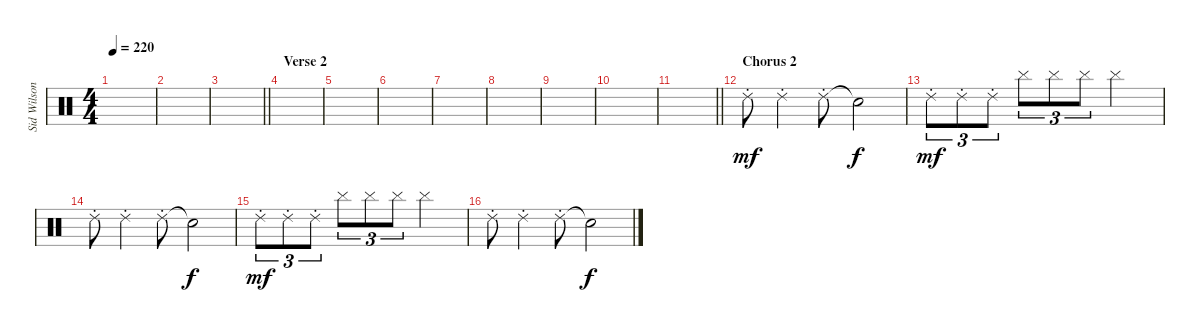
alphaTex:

\track ("Sid Wilson" "Sid Wilson") {instrument percussion}
\staff {score}
\articulation defaults
\ts (4 4)
\tempo 220
\clef neutral
\ks c
|
|
\barLineRight lightlight
|
\section ("" "Verse 2")
|
|
|
|
|
|
|
\barLineRight lightlight
|
\section ("" "Chorus 2")
"Ride (choke) 2".8{dy mf} "Ride (choke) 2".4 "Ride (choke) 2".8 "Snare (hit)"{t}.2{dy f} |
"Ride (choke) 2".8{tu (3 2) dy mf} "Ride (choke) 2".8{tu (3 2)} "Ride (choke) 2".8{tu (3 2)} "Cymbal (hit)".8{tu (3 2)} "Cymbal (hit)".8{tu (3 2)} "Cymbal (hit)".8{tu (3 2)} "Cymbal (hit)".2 |
"Ride (choke) 2".8 "Ride (choke) 2".4 "Ride (choke) 2".8 "Snare (hit)"{t}.2{dy f} |
"Ride (choke) 2".8{tu (3 2) dy mf} "Ride (choke) 2".8{tu (3 2)} "Ride (choke) 2".8{tu (3 2)} "Cymbal (hit)".8{tu (3 2)} "Cymbal (hit)".8{tu (3 2)} "Cymbal (hit)".8{tu (3 2)} "Cymbal (hit)".2 |
"Ride (choke) 2".8 "Ride (choke) 2".4 "Ride (choke) 2".8 "Snare (hit)"{t}.2{dy f}
